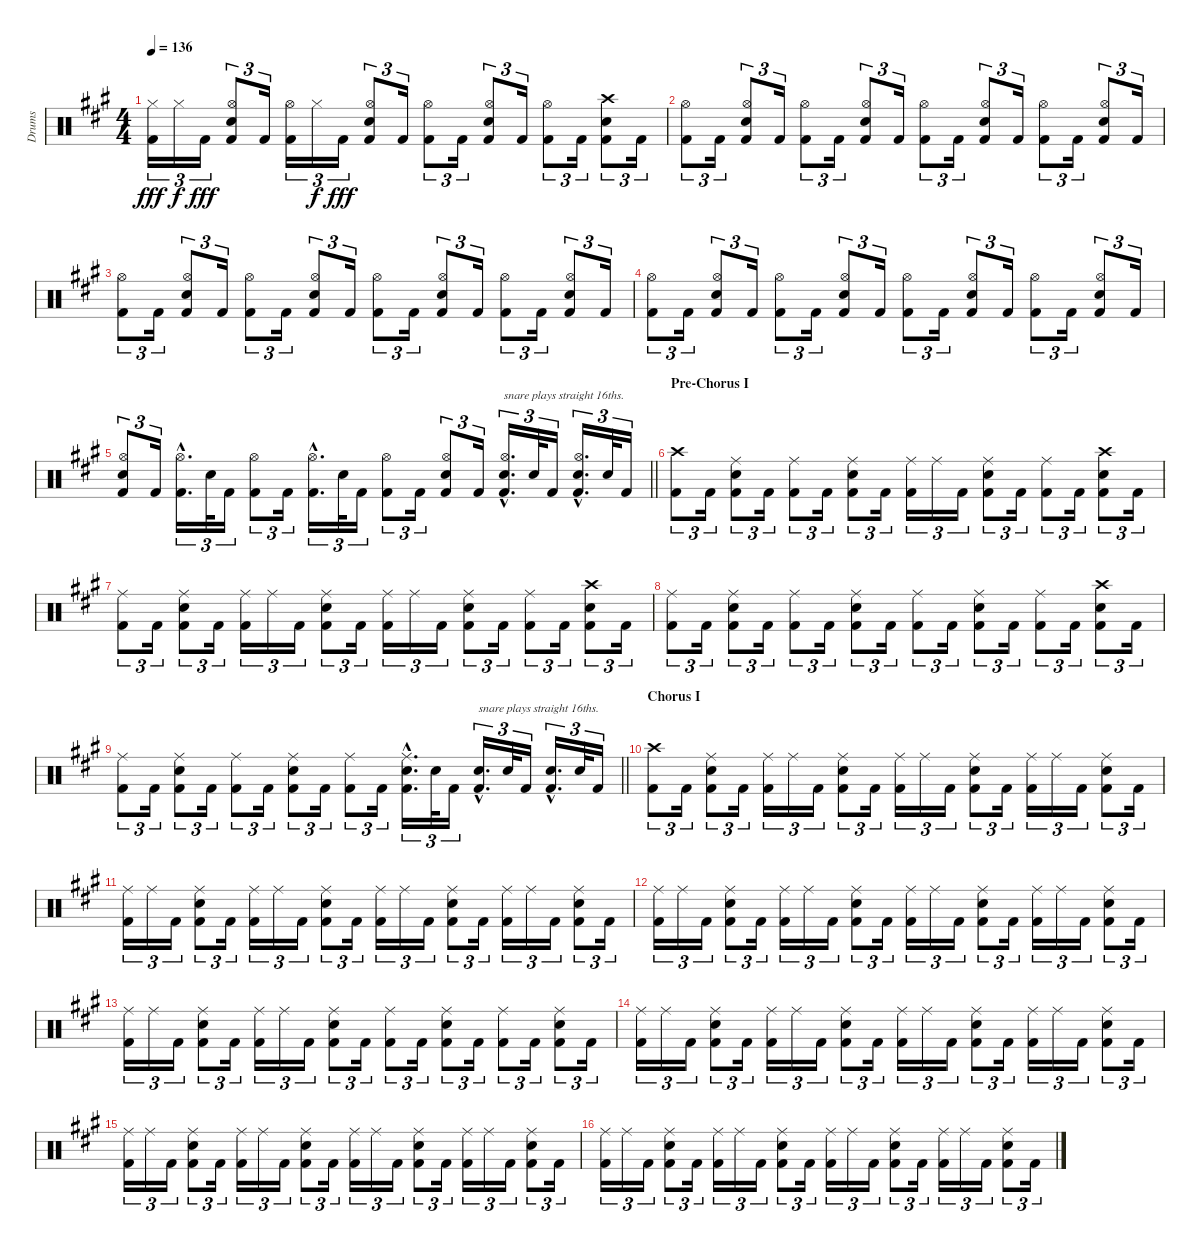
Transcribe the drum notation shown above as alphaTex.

\track ("Drums" "Drums") {instrument percussion}
\staff {score}
\articulation defaults
\ts (4 4)
\tempo 136
\clef neutral
\ks a
("Hi-Hat (closed)" "Kick (hit) 2").16{tu (3 2) dy fff} "Hi-Hat (closed)".16{tu (3 2) dy f} "Kick (hit) 2".16{tu (3 2) dy fff} ("Hi-Hat (open)" "Snare (hit) 2" "Kick (hit) 2").8{tu (3 2)} "Kick (hit) 2".16{tu (3 2)} ("Hi-Hat (open)" "Kick (hit) 2").16{tu (3 2)} "Hi-Hat (closed)".16{tu (3 2) dy f} "Kick (hit) 2".16{tu (3 2) dy fff} ("Hi-Hat (open)" "Snare (hit) 2" "Kick (hit) 2").8{tu (3 2)} "Kick (hit) 2".16{tu (3 2)} ("Hi-Hat (open)" "Kick (hit) 2").8{tu (3 2)} "Kick (hit) 2".16{tu (3 2)} ("Hi-Hat (open)" "Snare (hit) 2" "Kick (hit) 2").8{tu (3 2)} "Kick (hit) 2".16{tu (3 2)} ("Hi-Hat (open)" "Kick (hit) 2").8{tu (3 2)} "Kick (hit) 2".16{tu (3 2)} ("Crash high (hit)" "Snare (hit) 2" "Kick (hit) 2").8{tu (3 2)} "Kick (hit) 2".16{tu (3 2)} |
("Hi-Hat (open)" "Kick (hit) 2").8{tu (3 2)} "Kick (hit) 2".16{tu (3 2)} ("Hi-Hat (open)" "Snare (hit) 2" "Kick (hit) 2").8{tu (3 2)} "Kick (hit) 2".16{tu (3 2)} ("Hi-Hat (open)" "Kick (hit) 2").8{tu (3 2)} "Kick (hit) 2".16{tu (3 2)} ("Hi-Hat (open)" "Snare (hit) 2" "Kick (hit) 2").8{tu (3 2)} "Kick (hit) 2".16{tu (3 2)} ("Hi-Hat (open)" "Kick (hit) 2").8{tu (3 2)} "Kick (hit) 2".16{tu (3 2)} ("Hi-Hat (open)" "Snare (hit) 2" "Kick (hit) 2").8{tu (3 2)} "Kick (hit) 2".16{tu (3 2)} ("Hi-Hat (open)" "Kick (hit) 2").8{tu (3 2)} "Kick (hit) 2".16{tu (3 2)} ("Hi-Hat (open)" "Snare (hit) 2" "Kick (hit) 2").8{tu (3 2)} "Kick (hit) 2".16{tu (3 2)} |
("Hi-Hat (open)" "Kick (hit) 2").8{tu (3 2)} "Kick (hit) 2".16{tu (3 2)} ("Hi-Hat (open)" "Snare (hit) 2" "Kick (hit) 2").8{tu (3 2)} "Kick (hit) 2".16{tu (3 2)} ("Hi-Hat (open)" "Kick (hit) 2").8{tu (3 2)} "Kick (hit) 2".16{tu (3 2)} ("Hi-Hat (open)" "Snare (hit) 2" "Kick (hit) 2").8{tu (3 2)} "Kick (hit) 2".16{tu (3 2)} ("Hi-Hat (open)" "Kick (hit) 2").8{tu (3 2)} "Kick (hit) 2".16{tu (3 2)} ("Hi-Hat (open)" "Snare (hit) 2" "Kick (hit) 2").8{tu (3 2)} "Kick (hit) 2".16{tu (3 2)} ("Hi-Hat (open)" "Kick (hit) 2").8{tu (3 2)} "Kick (hit) 2".16{tu (3 2)} ("Hi-Hat (open)" "Snare (hit) 2" "Kick (hit) 2").8{tu (3 2)} "Kick (hit) 2".16{tu (3 2)} |
("Hi-Hat (open)" "Kick (hit) 2").8{tu (3 2)} "Kick (hit) 2".16{tu (3 2)} ("Hi-Hat (open)" "Snare (hit) 2" "Kick (hit) 2").8{tu (3 2)} "Kick (hit) 2".16{tu (3 2)} ("Hi-Hat (open)" "Kick (hit) 2").8{tu (3 2)} "Kick (hit) 2".16{tu (3 2)} ("Hi-Hat (open)" "Snare (hit) 2" "Kick (hit) 2").8{tu (3 2)} "Kick (hit) 2".16{tu (3 2)} ("Hi-Hat (open)" "Kick (hit) 2").8{tu (3 2)} "Kick (hit) 2".16{tu (3 2)} ("Hi-Hat (open)" "Snare (hit) 2" "Kick (hit) 2").8{tu (3 2)} "Kick (hit) 2".16{tu (3 2)} ("Hi-Hat (open)" "Kick (hit) 2").8{tu (3 2)} "Kick (hit) 2".16{tu (3 2)} ("Hi-Hat (open)" "Snare (hit) 2" "Kick (hit) 2").8{tu (3 2)} "Kick (hit) 2".16{tu (3 2)} |
\barLineRight lightlight
("Hi-Hat (open)" "Snare (hit) 2" "Kick (hit) 2").8{tu (3 2)} "Kick (hit) 2".16{tu (3 2)} ("Hi-Hat (open)"{hac} "Kick (hit) 2"{hac}).16{d tu (3 2)} "Snare (hit) 2".32{tu (3 2)} "Kick (hit) 2".16{tu (3 2)} ("Hi-Hat (open)" "Kick (hit) 2").8{tu (3 2)} "Kick (hit) 2".16{tu (3 2)} ("Hi-Hat (open)"{hac} "Kick (hit) 2"{hac}).16{d tu (3 2)} "Snare (hit) 2".32{tu (3 2)} "Kick (hit) 2".16{tu (3 2)} ("Hi-Hat (open)" "Kick (hit) 2").8{tu (3 2)} "Kick (hit) 2".16{tu (3 2)} ("Hi-Hat (open)" "Snare (hit) 2" "Kick (hit) 2").8{tu (3 2)} "Kick (hit) 2".16{tu (3 2)} ("Hi-Hat (open)"{hac} "Snare (hit) 2" "Kick (hit) 2").16{d tu (3 2) txt "snare plays straight 16ths."} "Snare (hit) 2".32{tu (3 2)} "Kick (hit) 2".16{tu (3 2)} ("Hi-Hat (open)"{hac} "Snare (hit) 2" "Kick (hit) 2"{hac}).16{d tu (3 2)} "Snare (hit) 2".32{tu (3 2)} "Kick (hit) 2".16{tu (3 2)} |
\section ("" "Pre-Chorus I")
("Crash high (hit)" "Kick (hit) 2").8{tu (3 2)} "Kick (hit) 2".16{tu (3 2)} ("Ride (middle)" "Snare (hit) 2" "Kick (hit) 2").8{tu (3 2)} "Kick (hit) 2".16{tu (3 2)} ("Ride (middle)" "Kick (hit) 2").8{tu (3 2)} "Kick (hit) 2".16{tu (3 2)} ("Ride (middle)" "Snare (hit) 2" "Kick (hit) 2").8{tu (3 2)} "Kick (hit) 2".16{tu (3 2)} ("Ride (middle)" "Kick (hit) 2").16{tu (3 2)} "Ride (middle)".16{tu (3 2)} "Kick (hit) 2".16{tu (3 2)} ("Ride (middle)" "Snare (hit) 2" "Kick (hit) 2").8{tu (3 2)} "Kick (hit) 2".16{tu (3 2)} ("Ride (middle)" "Kick (hit) 2").8{tu (3 2)} "Kick (hit) 2".16{tu (3 2)} ("Crash high (hit)" "Snare (hit) 2" "Kick (hit) 2").8{tu (3 2)} "Kick (hit) 2".16{tu (3 2)} |
("Ride (middle)" "Kick (hit) 2").8{tu (3 2)} "Kick (hit) 2".16{tu (3 2)} ("Ride (middle)" "Snare (hit) 2" "Kick (hit) 2").8{tu (3 2)} "Kick (hit) 2".16{tu (3 2)} ("Ride (middle)" "Kick (hit) 2").16{tu (3 2)} "Ride (middle)".16{tu (3 2)} "Kick (hit) 2".16{tu (3 2)} ("Ride (middle)" "Snare (hit) 2" "Kick (hit) 2").8{tu (3 2)} "Kick (hit) 2".16{tu (3 2)} ("Ride (middle)" "Kick (hit) 2").16{tu (3 2)} "Ride (middle)".16{tu (3 2)} "Kick (hit) 2".16{tu (3 2)} ("Ride (middle)" "Snare (hit) 2" "Kick (hit) 2").8{tu (3 2)} "Kick (hit) 2".16{tu (3 2)} ("Ride (middle)" "Kick (hit) 2").8{tu (3 2)} "Kick (hit) 2".16{tu (3 2)} ("Crash high (hit)" "Snare (hit) 2" "Kick (hit) 2").8{tu (3 2)} "Kick (hit) 2".16{tu (3 2)} |
("Ride (middle)" "Kick (hit) 2").8{tu (3 2)} "Kick (hit) 2".16{tu (3 2)} ("Ride (middle)" "Snare (hit) 2" "Kick (hit) 2").8{tu (3 2)} "Kick (hit) 2".16{tu (3 2)} ("Ride (middle)" "Kick (hit) 2").8{tu (3 2)} "Kick (hit) 2".16{tu (3 2)} ("Ride (middle)" "Snare (hit) 2" "Kick (hit) 2").8{tu (3 2)} "Kick (hit) 2".16{tu (3 2)} ("Ride (middle)" "Kick (hit) 2").8{tu (3 2)} "Kick (hit) 2".16{tu (3 2)} ("Ride (middle)" "Snare (hit) 2" "Kick (hit) 2").8{tu (3 2)} "Kick (hit) 2".16{tu (3 2)} ("Ride (middle)" "Kick (hit) 2").8{tu (3 2)} "Kick (hit) 2".16{tu (3 2)} ("Crash high (hit)" "Snare (hit) 2" "Kick (hit) 2").8{tu (3 2)} "Kick (hit) 2".16{tu (3 2)} |
\barLineRight lightlight
("Ride (middle)" "Kick (hit) 2").8{tu (3 2)} "Kick (hit) 2".16{tu (3 2)} ("Ride (middle)" "Snare (hit) 2" "Kick (hit) 2").8{tu (3 2)} "Kick (hit) 2".16{tu (3 2)} ("Ride (middle)" "Kick (hit) 2").8{tu (3 2)} "Kick (hit) 2".16{tu (3 2)} ("Ride (middle)" "Snare (hit) 2" "Kick (hit) 2").8{tu (3 2)} "Kick (hit) 2".16{tu (3 2)} ("Ride (middle)" "Kick (hit) 2").8{tu (3 2)} "Kick (hit) 2".16{tu (3 2)} ("Ride (middle)"{hac} "Snare (hit) 2"{hac} "Kick (hit) 2"{hac}).16{d tu (3 2)} "Snare (hit) 2".32{tu (3 2)} "Kick (hit) 2".16{tu (3 2)} ("Snare (hit) 2"{hac} "Kick (hit) 2"{hac}).16{d tu (3 2) txt "snare plays straight 16ths."} "Snare (hit) 2".32{tu (3 2)} "Kick (hit) 2".16{tu (3 2)} ("Snare (hit) 2"{hac} "Kick (hit) 2"{hac}).16{d tu (3 2)} "Snare (hit) 2".32{tu (3 2)} "Kick (hit) 2".16{tu (3 2)} |
\section ("" "Chorus I")
("Crash high (hit)" "Kick (hit) 2").8{tu (3 2)} "Kick (hit) 2".16{tu (3 2)} ("Ride (middle)" "Snare (hit) 2" "Kick (hit) 2").8{tu (3 2)} "Kick (hit) 2".16{tu (3 2)} ("Ride (middle)" "Kick (hit) 2").16{tu (3 2)} "Ride (middle)".16{tu (3 2)} "Kick (hit) 2".16{tu (3 2)} ("Ride (middle)" "Snare (hit) 2" "Kick (hit) 2").8{tu (3 2)} "Kick (hit) 2".16{tu (3 2)} ("Ride (middle)" "Kick (hit) 2").16{tu (3 2)} "Ride (middle)".16{tu (3 2)} "Kick (hit) 2".16{tu (3 2)} ("Ride (middle)" "Snare (hit) 2" "Kick (hit) 2").8{tu (3 2)} "Kick (hit) 2".16{tu (3 2)} ("Ride (middle)" "Kick (hit) 2").16{tu (3 2)} "Ride (middle)".16{tu (3 2)} "Kick (hit) 2".16{tu (3 2)} ("Ride (middle)" "Snare (hit) 2" "Kick (hit) 2").8{tu (3 2)} "Kick (hit) 2".16{tu (3 2)} |
("Ride (middle)" "Kick (hit) 2").16{tu (3 2)} "Ride (middle)".16{tu (3 2)} "Kick (hit) 2".16{tu (3 2)} ("Ride (middle)" "Snare (hit) 2" "Kick (hit) 2").8{tu (3 2)} "Kick (hit) 2".16{tu (3 2)} ("Ride (middle)" "Kick (hit) 2").16{tu (3 2)} "Ride (middle)".16{tu (3 2)} "Kick (hit) 2".16{tu (3 2)} ("Ride (middle)" "Snare (hit) 2" "Kick (hit) 2").8{tu (3 2)} "Kick (hit) 2".16{tu (3 2)} ("Ride (middle)" "Kick (hit) 2").16{tu (3 2)} "Ride (middle)".16{tu (3 2)} "Kick (hit) 2".16{tu (3 2)} ("Ride (middle)" "Snare (hit) 2" "Kick (hit) 2").8{tu (3 2)} "Kick (hit) 2".16{tu (3 2)} ("Ride (middle)" "Kick (hit) 2").16{tu (3 2)} "Ride (middle)".16{tu (3 2)} "Kick (hit) 2".16{tu (3 2)} ("Ride (middle)" "Snare (hit) 2" "Kick (hit) 2").8{tu (3 2)} "Kick (hit) 2".16{tu (3 2)} |
("Ride (middle)" "Kick (hit) 2").16{tu (3 2)} "Ride (middle)".16{tu (3 2)} "Kick (hit) 2".16{tu (3 2)} ("Ride (middle)" "Snare (hit) 2" "Kick (hit) 2").8{tu (3 2)} "Kick (hit) 2".16{tu (3 2)} ("Ride (middle)" "Kick (hit) 2").16{tu (3 2)} "Ride (middle)".16{tu (3 2)} "Kick (hit) 2".16{tu (3 2)} ("Ride (middle)" "Snare (hit) 2" "Kick (hit) 2").8{tu (3 2)} "Kick (hit) 2".16{tu (3 2)} ("Ride (middle)" "Kick (hit) 2").16{tu (3 2)} "Ride (middle)".16{tu (3 2)} "Kick (hit) 2".16{tu (3 2)} ("Ride (middle)" "Snare (hit) 2" "Kick (hit) 2").8{tu (3 2)} "Kick (hit) 2".16{tu (3 2)} ("Ride (middle)" "Kick (hit) 2").16{tu (3 2)} "Ride (middle)".16{tu (3 2)} "Kick (hit) 2".16{tu (3 2)} ("Ride (middle)" "Snare (hit) 2" "Kick (hit) 2").8{tu (3 2)} "Kick (hit) 2".16{tu (3 2)} |
("Ride (middle)" "Kick (hit) 2").16{tu (3 2)} "Ride (middle)".16{tu (3 2)} "Kick (hit) 2".16{tu (3 2)} ("Ride (middle)" "Snare (hit) 2" "Kick (hit) 2").8{tu (3 2)} "Kick (hit) 2".16{tu (3 2)} ("Ride (middle)" "Kick (hit) 2").16{tu (3 2)} "Ride (middle)".16{tu (3 2)} "Kick (hit) 2".16{tu (3 2)} ("Ride (middle)" "Snare (hit) 2" "Kick (hit) 2").8{tu (3 2)} "Kick (hit) 2".16{tu (3 2)} ("Ride (middle)" "Kick (hit) 2").8{tu (3 2)} "Kick (hit) 2".16{tu (3 2)} ("Ride (middle)" "Snare (hit) 2" "Kick (hit) 2").8{tu (3 2)} "Kick (hit) 2".16{tu (3 2)} ("Ride (middle)" "Kick (hit) 2").8{tu (3 2)} "Kick (hit) 2".16{tu (3 2)} ("Ride (middle)" "Snare (hit) 2" "Kick (hit) 2").8{tu (3 2) volume 16} "Kick (hit) 2".16{tu (3 2) volume 13} |
("Ride (middle)" "Kick (hit) 2").16{tu (3 2)} "Ride (middle)".16{tu (3 2)} "Kick (hit) 2".16{tu (3 2)} ("Ride (middle)" "Snare (hit) 2" "Kick (hit) 2").8{tu (3 2)} "Kick (hit) 2".16{tu (3 2)} ("Ride (middle)" "Kick (hit) 2").16{tu (3 2)} "Ride (middle)".16{tu (3 2)} "Kick (hit) 2".16{tu (3 2)} ("Ride (middle)" "Snare (hit) 2" "Kick (hit) 2").8{tu (3 2)} "Kick (hit) 2".16{tu (3 2)} ("Ride (middle)" "Kick (hit) 2").16{tu (3 2)} "Ride (middle)".16{tu (3 2)} "Kick (hit) 2".16{tu (3 2)} ("Ride (middle)" "Snare (hit) 2" "Kick (hit) 2").8{tu (3 2)} "Kick (hit) 2".16{tu (3 2)} ("Ride (middle)" "Kick (hit) 2").16{tu (3 2)} "Ride (middle)".16{tu (3 2)} "Kick (hit) 2".16{tu (3 2)} ("Ride (middle)" "Snare (hit) 2" "Kick (hit) 2").8{tu (3 2)} "Kick (hit) 2".16{tu (3 2)} |
("Ride (middle)" "Kick (hit) 2").16{tu (3 2)} "Ride (middle)".16{tu (3 2)} "Kick (hit) 2".16{tu (3 2)} ("Ride (middle)" "Snare (hit) 2" "Kick (hit) 2").8{tu (3 2)} "Kick (hit) 2".16{tu (3 2)} ("Ride (middle)" "Kick (hit) 2").16{tu (3 2)} "Ride (middle)".16{tu (3 2)} "Kick (hit) 2".16{tu (3 2)} ("Ride (middle)" "Snare (hit) 2" "Kick (hit) 2").8{tu (3 2)} "Kick (hit) 2".16{tu (3 2)} ("Ride (middle)" "Kick (hit) 2").16{tu (3 2)} "Ride (middle)".16{tu (3 2)} "Kick (hit) 2".16{tu (3 2)} ("Ride (middle)" "Snare (hit) 2" "Kick (hit) 2").8{tu (3 2)} "Kick (hit) 2".16{tu (3 2)} ("Ride (middle)" "Kick (hit) 2").16{tu (3 2)} "Ride (middle)".16{tu (3 2)} "Kick (hit) 2".16{tu (3 2)} ("Ride (middle)" "Snare (hit) 2" "Kick (hit) 2").8{tu (3 2)} "Kick (hit) 2".16{tu (3 2)} |
("Ride (middle)" "Kick (hit) 2").16{tu (3 2)} "Ride (middle)".16{tu (3 2)} "Kick (hit) 2".16{tu (3 2)} ("Ride (middle)" "Snare (hit) 2" "Kick (hit) 2").8{tu (3 2)} "Kick (hit) 2".16{tu (3 2)} ("Ride (middle)" "Kick (hit) 2").16{tu (3 2)} "Ride (middle)".16{tu (3 2)} "Kick (hit) 2".16{tu (3 2)} ("Ride (middle)" "Snare (hit) 2" "Kick (hit) 2").8{tu (3 2)} "Kick (hit) 2".16{tu (3 2)} ("Ride (middle)" "Kick (hit) 2").16{tu (3 2)} "Ride (middle)".16{tu (3 2)} "Kick (hit) 2".16{tu (3 2)} ("Ride (middle)" "Snare (hit) 2" "Kick (hit) 2").8{tu (3 2)} "Kick (hit) 2".16{tu (3 2)} ("Ride (middle)" "Kick (hit) 2").16{tu (3 2)} "Ride (middle)".16{tu (3 2)} "Kick (hit) 2".16{tu (3 2)} ("Ride (middle)" "Snare (hit) 2" "Kick (hit) 2").8{tu (3 2)} "Kick (hit) 2".16{tu (3 2)}
